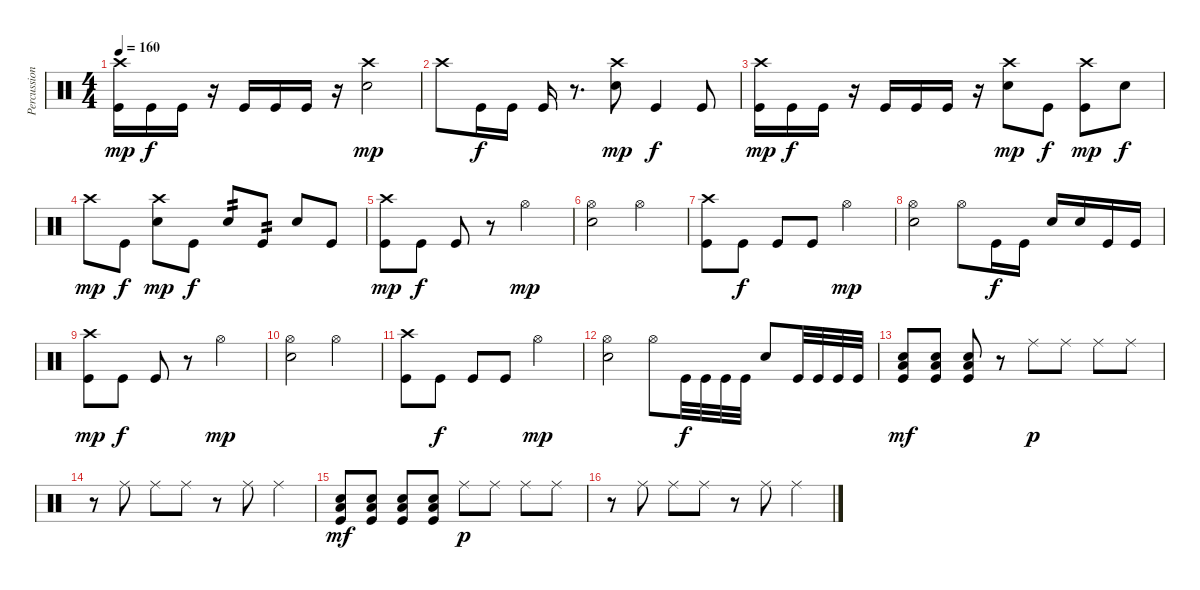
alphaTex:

\track ("Percussion" "Percussion") {instrument percussion}
\staff {score}
\articulation defaults
\ts (4 4)
\tempo 160
\clef neutral
\ks c
("Crash high (hit)" "Kick (hit)").16{dy mp} "Kick (hit)".16{dy f} "Kick (hit)".16 r.16 "Kick (hit)".16 "Kick (hit)".16 "Kick (hit)".16 r.16 ("Crash high (hit)" "Electric Snare (hit)").2{dy mp} |
"Crash high (hit)".8 "Kick (hit)".16{dy f} "Kick (hit)".16 "Kick (hit)".16 r.8{d} ("Crash high (hit)" "Electric Snare (hit)").8{dy mp} "Kick (hit)".4{dy f} "Kick (hit)".8 |
("Crash high (hit)" "Kick (hit)").16{dy mp} "Kick (hit)".16{dy f} "Kick (hit)".16 r.16 "Kick (hit)".16 "Kick (hit)".16 "Kick (hit)".16 r.16 ("Crash high (hit)" "Electric Snare (hit)").8{dy mp} "Kick (hit)".8{dy f} ("Crash high (hit)" "Kick (hit)").8{dy mp} "Electric Snare (hit)".8{dy f} |
"Crash high (hit)".8{dy mp} "Kick (hit)".8{dy f} ("Crash high (hit)" "Electric Snare (hit)").8{dy mp} "Kick (hit)".8{dy f} "Electric Snare (hit)".8{tp 2} "Kick (hit)".8{tp 2} "Electric Snare (hit)".8 "Kick (hit)".8 |
("Crash high (hit)" "Kick (hit)").8{dy mp} "Kick (hit)".8{dy f} "Kick (hit)".8 r.8 "Hi-Hat (open)".2{dy mp} |
("Hi-Hat (open)" "Electric Snare (hit)").2 "Hi-Hat (open)".2 |
("Crash high (hit)" "Kick (hit)").8 "Kick (hit)".8{dy f} "Kick (hit)".8 "Kick (hit)".8 "Hi-Hat (open)".2{dy mp} |
("Hi-Hat (open)" "Electric Snare (hit)").2 "Hi-Hat (open)".8 "Kick (hit)".16{dy f} "Kick (hit)".16 "Electric Snare (hit)".16 "Electric Snare (hit)".16 "Kick (hit)".16 "Kick (hit)".16 |
("Crash high (hit)" "Kick (hit)").8{dy mp} "Kick (hit)".8{dy f} "Kick (hit)".8 r.8 "Hi-Hat (open)".2{dy mp} |
("Hi-Hat (open)" "Electric Snare (hit)").2 "Hi-Hat (open)".2 |
("Crash high (hit)" "Kick (hit)").8 "Kick (hit)".8{dy f} "Kick (hit)".8 "Kick (hit)".8 "Hi-Hat (open)".2{dy mp} |
("Hi-Hat (open)" "Electric Snare (hit)").2 "Hi-Hat (open)".8 "Kick (hit)".32{dy f} "Kick (hit)".32 "Kick (hit)".32 "Kick (hit)".32 "Electric Snare (hit)".8 "Kick (hit)".32 "Kick (hit)".32 "Kick (hit)".32 "Kick (hit)".32 |
("Electric Snare (hit)" "Low Floor Tom (hit)" "Kick (hit)").8{dy mf} ("Electric Snare (hit)" "Low Floor Tom (hit)" "Kick (hit)").8 ("Electric Snare (hit)" "Low Floor Tom (hit)" "Kick (hit)").8 r.8 "Ride (middle)".8{dy p} "Ride (middle)".8 "Ride (middle)".8 "Ride (middle)".8 |
r.8 "Ride (middle)".8 "Ride (middle)".8 "Ride (middle)".8 r.8 "Ride (middle)".8 "Ride (middle)".4 |
("Electric Snare (hit)" "Low Floor Tom (hit)" "Kick (hit)").8{dy mf} ("Electric Snare (hit)" "Low Floor Tom (hit)" "Kick (hit)").8 ("Electric Snare (hit)" "Low Floor Tom (hit)" "Kick (hit)").8 ("Electric Snare (hit)" "Low Floor Tom (hit)" "Kick (hit)").8 "Ride (middle)".8{dy p} "Ride (middle)".8 "Ride (middle)".8 "Ride (middle)".8 |
r.8 "Ride (middle)".8 "Ride (middle)".8 "Ride (middle)".8 r.8 "Ride (middle)".8 "Ride (middle)".4
